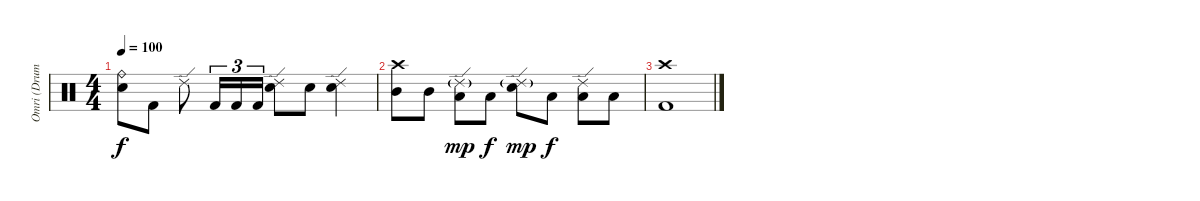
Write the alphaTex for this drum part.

\track ("Omri (Drums)" "Omri (Drum") {instrument percussion}
\staff {score}
\articulation defaults
\ts (4 4)
\tempo 100
\clef neutral
\ks c
("Ride (bell)" "Snare (hit) 2").8{dy f} "Kick (hit) 2".8 "Ride (edge) 2".8 "Kick (hit) 2".16{tu (3 2)} "Kick (hit) 2".16{tu (3 2)} "Kick (hit) 2".16{tu (3 2)} ("Ride (edge) 2" "Snare (hit) 2").8 "Snare (hit) 2".8 ("Ride (edge) 2" "Snare (hit) 2").4 |
("Crash high (hit)" "Mid Tom (hit)").8 "Mid Tom (hit)".8 ("Ride (edge) 2"{g} "Low Tom (hit)").8{dy mp} "Low Tom (hit)".8{dy f} ("Ride (edge) 2"{g} "Snare (hit) 2").8{dy mp} "Low Tom (hit)".8{dy f} ("Ride (edge) 2" "Low Tom (hit)").8 "Low Tom (hit)".8 |
("Crash high (hit)" "Kick (hit) 2").1
